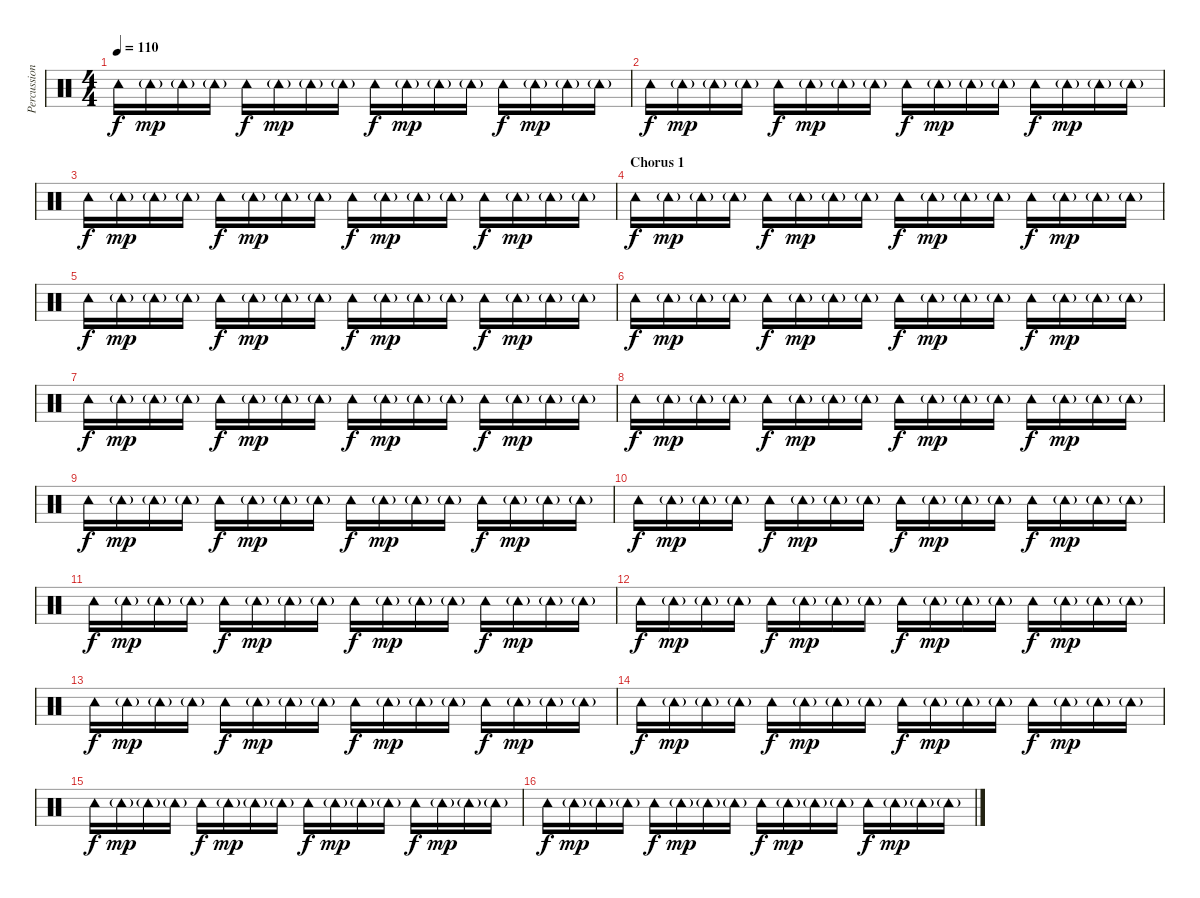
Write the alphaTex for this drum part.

\track ("Percussion" "Percussion") {instrument percussion}
\staff {score}
\articulation defaults
\ts (4 4)
\tempo 110
\clef neutral
\ks c "Tambourine (hit)".16{dy f} "Tambourine (hit)"{g}.16{dy mp} "Tambourine (hit)"{g}.16 "Tambourine (hit)"{g}.16 "Tambourine (hit)".16{dy f} "Tambourine (hit)"{g}.16{dy mp} "Tambourine (hit)"{g}.16 "Tambourine (hit)"{g}.16 "Tambourine (hit)".16{dy f} "Tambourine (hit)"{g}.16{dy mp} "Tambourine (hit)"{g}.16 "Tambourine (hit)"{g}.16 "Tambourine (hit)".16{dy f} "Tambourine (hit)"{g}.16{dy mp} "Tambourine (hit)"{g}.16 "Tambourine (hit)"{g}.16
|
"Tambourine (hit)".16{dy f} "Tambourine (hit)"{g}.16{dy mp} "Tambourine (hit)"{g}.16 "Tambourine (hit)"{g}.16 "Tambourine (hit)".16{dy f} "Tambourine (hit)"{g}.16{dy mp} "Tambourine (hit)"{g}.16 "Tambourine (hit)"{g}.16 "Tambourine (hit)".16{dy f} "Tambourine (hit)"{g}.16{dy mp} "Tambourine (hit)"{g}.16 "Tambourine (hit)"{g}.16 "Tambourine (hit)".16{dy f} "Tambourine (hit)"{g}.16{dy mp} "Tambourine (hit)"{g}.16 "Tambourine (hit)"{g}.16 |
"Tambourine (hit)".16{dy f} "Tambourine (hit)"{g}.16{dy mp} "Tambourine (hit)"{g}.16 "Tambourine (hit)"{g}.16 "Tambourine (hit)".16{dy f} "Tambourine (hit)"{g}.16{dy mp} "Tambourine (hit)"{g}.16 "Tambourine (hit)"{g}.16 "Tambourine (hit)".16{dy f} "Tambourine (hit)"{g}.16{dy mp} "Tambourine (hit)"{g}.16 "Tambourine (hit)"{g}.16 "Tambourine (hit)".16{dy f} "Tambourine (hit)"{g}.16{dy mp} "Tambourine (hit)"{g}.16 "Tambourine (hit)"{g}.16 |
\section ("" "Chorus 1")
"Tambourine (hit)".16{dy f} "Tambourine (hit)"{g}.16{dy mp} "Tambourine (hit)"{g}.16 "Tambourine (hit)"{g}.16 "Tambourine (hit)".16{dy f} "Tambourine (hit)"{g}.16{dy mp} "Tambourine (hit)"{g}.16 "Tambourine (hit)"{g}.16 "Tambourine (hit)".16{dy f} "Tambourine (hit)"{g}.16{dy mp} "Tambourine (hit)"{g}.16 "Tambourine (hit)"{g}.16 "Tambourine (hit)".16{dy f} "Tambourine (hit)"{g}.16{dy mp} "Tambourine (hit)"{g}.16 "Tambourine (hit)"{g}.16 |
"Tambourine (hit)".16{dy f} "Tambourine (hit)"{g}.16{dy mp} "Tambourine (hit)"{g}.16 "Tambourine (hit)"{g}.16 "Tambourine (hit)".16{dy f} "Tambourine (hit)"{g}.16{dy mp} "Tambourine (hit)"{g}.16 "Tambourine (hit)"{g}.16 "Tambourine (hit)".16{dy f} "Tambourine (hit)"{g}.16{dy mp} "Tambourine (hit)"{g}.16 "Tambourine (hit)"{g}.16 "Tambourine (hit)".16{dy f} "Tambourine (hit)"{g}.16{dy mp} "Tambourine (hit)"{g}.16 "Tambourine (hit)"{g}.16 |
"Tambourine (hit)".16{dy f} "Tambourine (hit)"{g}.16{dy mp} "Tambourine (hit)"{g}.16 "Tambourine (hit)"{g}.16 "Tambourine (hit)".16{dy f} "Tambourine (hit)"{g}.16{dy mp} "Tambourine (hit)"{g}.16 "Tambourine (hit)"{g}.16 "Tambourine (hit)".16{dy f} "Tambourine (hit)"{g}.16{dy mp} "Tambourine (hit)"{g}.16 "Tambourine (hit)"{g}.16 "Tambourine (hit)".16{dy f} "Tambourine (hit)"{g}.16{dy mp} "Tambourine (hit)"{g}.16 "Tambourine (hit)"{g}.16 |
"Tambourine (hit)".16{dy f} "Tambourine (hit)"{g}.16{dy mp} "Tambourine (hit)"{g}.16 "Tambourine (hit)"{g}.16 "Tambourine (hit)".16{dy f} "Tambourine (hit)"{g}.16{dy mp} "Tambourine (hit)"{g}.16 "Tambourine (hit)"{g}.16 "Tambourine (hit)".16{dy f} "Tambourine (hit)"{g}.16{dy mp} "Tambourine (hit)"{g}.16 "Tambourine (hit)"{g}.16 "Tambourine (hit)".16{dy f} "Tambourine (hit)"{g}.16{dy mp} "Tambourine (hit)"{g}.16 "Tambourine (hit)"{g}.16 |
"Tambourine (hit)".16{dy f} "Tambourine (hit)"{g}.16{dy mp} "Tambourine (hit)"{g}.16 "Tambourine (hit)"{g}.16 "Tambourine (hit)".16{dy f} "Tambourine (hit)"{g}.16{dy mp} "Tambourine (hit)"{g}.16 "Tambourine (hit)"{g}.16 "Tambourine (hit)".16{dy f} "Tambourine (hit)"{g}.16{dy mp} "Tambourine (hit)"{g}.16 "Tambourine (hit)"{g}.16 "Tambourine (hit)".16{dy f} "Tambourine (hit)"{g}.16{dy mp} "Tambourine (hit)"{g}.16 "Tambourine (hit)"{g}.16 |
"Tambourine (hit)".16{dy f} "Tambourine (hit)"{g}.16{dy mp} "Tambourine (hit)"{g}.16 "Tambourine (hit)"{g}.16 "Tambourine (hit)".16{dy f} "Tambourine (hit)"{g}.16{dy mp} "Tambourine (hit)"{g}.16 "Tambourine (hit)"{g}.16 "Tambourine (hit)".16{dy f} "Tambourine (hit)"{g}.16{dy mp} "Tambourine (hit)"{g}.16 "Tambourine (hit)"{g}.16 "Tambourine (hit)".16{dy f} "Tambourine (hit)"{g}.16{dy mp} "Tambourine (hit)"{g}.16 "Tambourine (hit)"{g}.16 |
"Tambourine (hit)".16{dy f} "Tambourine (hit)"{g}.16{dy mp} "Tambourine (hit)"{g}.16 "Tambourine (hit)"{g}.16 "Tambourine (hit)".16{dy f} "Tambourine (hit)"{g}.16{dy mp} "Tambourine (hit)"{g}.16 "Tambourine (hit)"{g}.16 "Tambourine (hit)".16{dy f} "Tambourine (hit)"{g}.16{dy mp} "Tambourine (hit)"{g}.16 "Tambourine (hit)"{g}.16 "Tambourine (hit)".16{dy f} "Tambourine (hit)"{g}.16{dy mp} "Tambourine (hit)"{g}.16 "Tambourine (hit)"{g}.16 |
"Tambourine (hit)".16{dy f} "Tambourine (hit)"{g}.16{dy mp} "Tambourine (hit)"{g}.16 "Tambourine (hit)"{g}.16 "Tambourine (hit)".16{dy f} "Tambourine (hit)"{g}.16{dy mp} "Tambourine (hit)"{g}.16 "Tambourine (hit)"{g}.16 "Tambourine (hit)".16{dy f} "Tambourine (hit)"{g}.16{dy mp} "Tambourine (hit)"{g}.16 "Tambourine (hit)"{g}.16 "Tambourine (hit)".16{dy f} "Tambourine (hit)"{g}.16{dy mp} "Tambourine (hit)"{g}.16 "Tambourine (hit)"{g}.16 |
"Tambourine (hit)".16{dy f} "Tambourine (hit)"{g}.16{dy mp} "Tambourine (hit)"{g}.16 "Tambourine (hit)"{g}.16 "Tambourine (hit)".16{dy f} "Tambourine (hit)"{g}.16{dy mp} "Tambourine (hit)"{g}.16 "Tambourine (hit)"{g}.16 "Tambourine (hit)".16{dy f} "Tambourine (hit)"{g}.16{dy mp} "Tambourine (hit)"{g}.16 "Tambourine (hit)"{g}.16 "Tambourine (hit)".16{dy f} "Tambourine (hit)"{g}.16{dy mp} "Tambourine (hit)"{g}.16 "Tambourine (hit)"{g}.16 |
"Tambourine (hit)".16{dy f} "Tambourine (hit)"{g}.16{dy mp} "Tambourine (hit)"{g}.16 "Tambourine (hit)"{g}.16 "Tambourine (hit)".16{dy f} "Tambourine (hit)"{g}.16{dy mp} "Tambourine (hit)"{g}.16 "Tambourine (hit)"{g}.16 "Tambourine (hit)".16{dy f} "Tambourine (hit)"{g}.16{dy mp} "Tambourine (hit)"{g}.16 "Tambourine (hit)"{g}.16 "Tambourine (hit)".16{dy f} "Tambourine (hit)"{g}.16{dy mp} "Tambourine (hit)"{g}.16 "Tambourine (hit)"{g}.16 |
"Tambourine (hit)".16{dy f} "Tambourine (hit)"{g}.16{dy mp} "Tambourine (hit)"{g}.16 "Tambourine (hit)"{g}.16 "Tambourine (hit)".16{dy f} "Tambourine (hit)"{g}.16{dy mp} "Tambourine (hit)"{g}.16 "Tambourine (hit)"{g}.16 "Tambourine (hit)".16{dy f} "Tambourine (hit)"{g}.16{dy mp} "Tambourine (hit)"{g}.16 "Tambourine (hit)"{g}.16 "Tambourine (hit)".16{dy f} "Tambourine (hit)"{g}.16{dy mp} "Tambourine (hit)"{g}.16 "Tambourine (hit)"{g}.16 |
"Tambourine (hit)".16{dy f} "Tambourine (hit)"{g}.16{dy mp} "Tambourine (hit)"{g}.16 "Tambourine (hit)"{g}.16 "Tambourine (hit)".16{dy f} "Tambourine (hit)"{g}.16{dy mp} "Tambourine (hit)"{g}.16 "Tambourine (hit)"{g}.16 "Tambourine (hit)".16{dy f} "Tambourine (hit)"{g}.16{dy mp} "Tambourine (hit)"{g}.16 "Tambourine (hit)"{g}.16 "Tambourine (hit)".16{dy f} "Tambourine (hit)"{g}.16{dy mp} "Tambourine (hit)"{g}.16 "Tambourine (hit)"{g}.16 |
"Tambourine (hit)".16{dy f} "Tambourine (hit)"{g}.16{dy mp} "Tambourine (hit)"{g}.16 "Tambourine (hit)"{g}.16 "Tambourine (hit)".16{dy f} "Tambourine (hit)"{g}.16{dy mp} "Tambourine (hit)"{g}.16 "Tambourine (hit)"{g}.16 "Tambourine (hit)".16{dy f} "Tambourine (hit)"{g}.16{dy mp} "Tambourine (hit)"{g}.16 "Tambourine (hit)"{g}.16 "Tambourine (hit)".16{dy f} "Tambourine (hit)"{g}.16{dy mp} "Tambourine (hit)"{g}.16 "Tambourine (hit)"{g}.16
